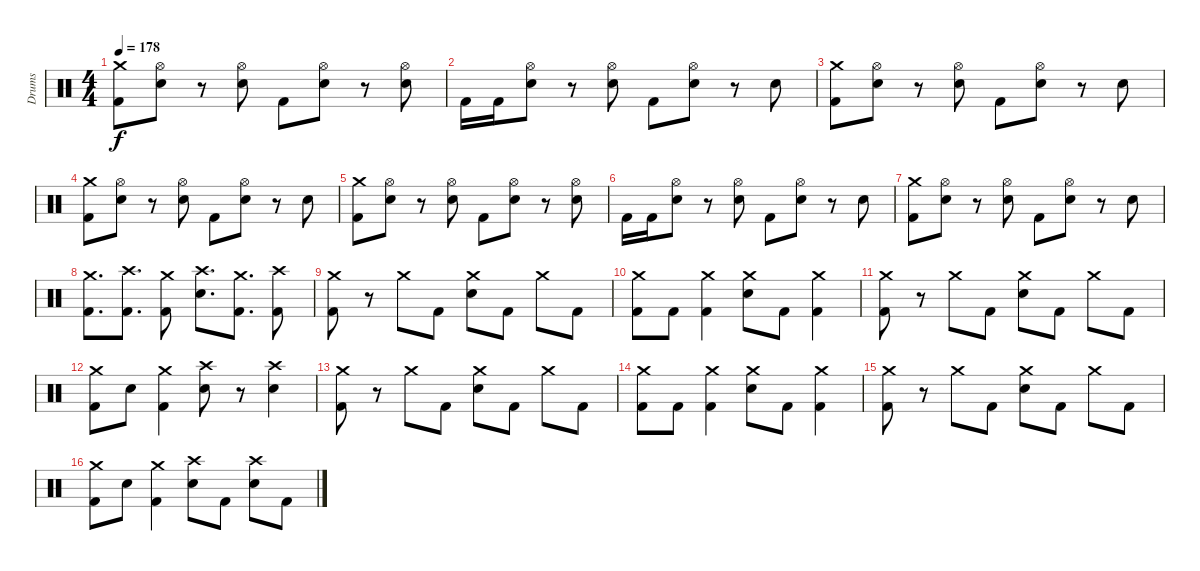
\track ("Drums" "Drums") {instrument percussion}
\staff
\articulation defaults
\ts (4 4)
\tempo 178
\clef neutral
\ks c
("Crash medium (hit)" "Kick (hit) 2").8{dy f} ("Hi-Hat (open)" "Electric Snare (hit)").8 r.8 ("Hi-Hat (open)" "Electric Snare (hit)").8 "Kick (hit) 2".8 ("Hi-Hat (open)" "Electric Snare (hit)").8 r.8 ("Hi-Hat (open)" "Electric Snare (hit)").8 |
"Kick (hit) 2".16 "Kick (hit) 2".16 ("Hi-Hat (open)" "Electric Snare (hit)").8 r.8 ("Hi-Hat (open)" "Electric Snare (hit)").8 "Kick (hit) 2".8 ("Hi-Hat (open)" "Electric Snare (hit)").8 r.8 "Electric Snare (hit)".8 |
("Crash medium (hit)" "Kick (hit) 2").8 ("Hi-Hat (open)" "Electric Snare (hit)").8 r.8 ("Hi-Hat (open)" "Electric Snare (hit)").8 "Kick (hit) 2".8 ("Hi-Hat (open)" "Electric Snare (hit)").8 r.8 "Electric Snare (hit)".8 |
("Crash medium (hit)" "Kick (hit) 2").8 ("Hi-Hat (open)" "Electric Snare (hit)").8 r.8 ("Hi-Hat (open)" "Electric Snare (hit)").8 "Kick (hit) 2".8 ("Hi-Hat (open)" "Electric Snare (hit)").8 r.8 "Electric Snare (hit)".8 |
("Crash medium (hit)" "Kick (hit) 2").8 ("Hi-Hat (open)" "Electric Snare (hit)").8 r.8 ("Hi-Hat (open)" "Electric Snare (hit)").8 "Kick (hit) 2".8 ("Hi-Hat (open)" "Electric Snare (hit)").8 r.8 ("Hi-Hat (open)" "Electric Snare (hit)").8 |
"Kick (hit) 2".16 "Kick (hit) 2".16 ("Hi-Hat (open)" "Electric Snare (hit)").8 r.8 ("Hi-Hat (open)" "Electric Snare (hit)").8 "Kick (hit) 2".8 ("Hi-Hat (open)" "Electric Snare (hit)").8 r.8 "Electric Snare (hit)".8 |
("Crash medium (hit)" "Kick (hit) 2").8 ("Hi-Hat (open)" "Electric Snare (hit)").8 r.8 ("Hi-Hat (open)" "Electric Snare (hit)").8 "Kick (hit) 2".8 ("Hi-Hat (open)" "Electric Snare (hit)").8 r.8 "Electric Snare (hit)".8 |
("Crash medium (hit)" "Kick (hit) 2").8{d} ("Crash high (hit)" "Kick (hit) 2").8{d} ("Crash medium (hit)" "Kick (hit) 2").8 ("Crash high (hit)" "Electric Snare (hit)").8{d} ("Crash medium (hit)" "Kick (hit) 2").8{d} ("Crash high (hit)" "Kick (hit) 2").8 |
("Crash medium (hit)" "Kick (hit) 2").8 r.8 "Crash medium (hit)".8 "Kick (hit) 2".8 ("Crash medium (hit)" "Electric Snare (hit)").8 "Kick (hit) 2".8 "Crash medium (hit)".8 "Kick (hit) 2".8 |
("Crash medium (hit)" "Kick (hit) 2").8 "Kick (hit) 2".8 ("Crash medium (hit)" "Kick (hit) 2").4 ("Crash medium (hit)" "Electric Snare (hit)").8 "Kick (hit) 2".8 ("Crash medium (hit)" "Kick (hit) 2").4 |
("Crash medium (hit)" "Kick (hit) 2").8 r.8 "Crash medium (hit)".8 "Kick (hit) 2".8 ("Crash medium (hit)" "Electric Snare (hit)").8 "Kick (hit) 2".8 "Crash medium (hit)".8 "Kick (hit) 2".8 |
("Crash medium (hit)" "Kick (hit) 2").8 "Electric Snare (hit)".8 ("Crash medium (hit)" "Kick (hit) 2").4 ("Crash high (hit)" "Electric Snare (hit)").8 r.8 ("Crash high (hit)" "Electric Snare (hit)").4 |
("Crash medium (hit)" "Kick (hit) 2").8 r.8 "Crash medium (hit)".8 "Kick (hit) 2".8 ("Crash medium (hit)" "Electric Snare (hit)").8 "Kick (hit) 2".8 "Crash medium (hit)".8 "Kick (hit) 2".8 |
("Crash medium (hit)" "Kick (hit) 2").8 "Kick (hit) 2".8 ("Crash medium (hit)" "Kick (hit) 2").4 ("Crash medium (hit)" "Electric Snare (hit)").8 "Kick (hit) 2".8 ("Crash medium (hit)" "Kick (hit) 2").4 |
("Crash medium (hit)" "Kick (hit) 2").8 r.8 "Crash medium (hit)".8 "Kick (hit) 2".8 ("Crash medium (hit)" "Electric Snare (hit)").8 "Kick (hit) 2".8 "Crash medium (hit)".8 "Kick (hit) 2".8 |
("Crash medium (hit)" "Kick (hit) 2").8 "Electric Snare (hit)".8 ("Crash medium (hit)" "Kick (hit) 2").4 ("Crash high (hit)" "Electric Snare (hit)").8 "Kick (hit) 2".8 ("Crash high (hit)" "Electric Snare (hit)").8 "Kick (hit) 2".8
